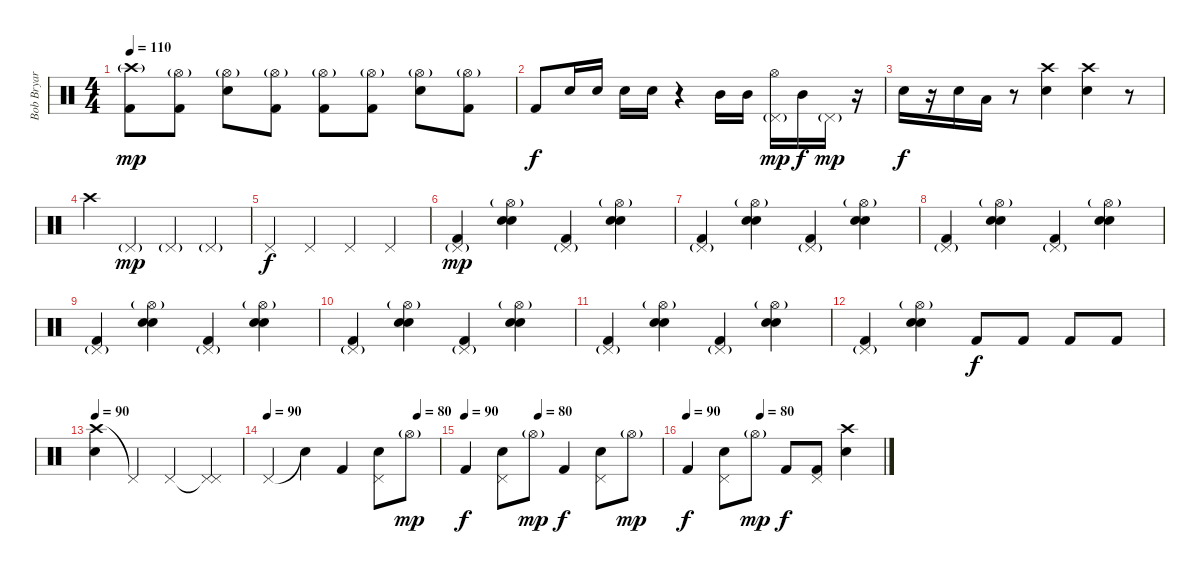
\track ("Bob Bryar [Drums]" "Bob Bryar ") {instrument percussion}
\staff {score}
\articulation defaults
\ts (4 4)
\tempo 110
\clef neutral
\ks c
("Crash high (hit)"{g} "Kick (hit) 2").8{dy mp} ("Hi-Hat (open)"{g} "Kick (hit) 2").8 ("Hi-Hat (open)"{g} "Electric Snare (hit)").8 ("Hi-Hat (open)"{g} "Kick (hit) 2").8 ("Hi-Hat (open)"{g} "Kick (hit) 2").8 ("Hi-Hat (open)"{g} "Kick (hit) 2").8 ("Hi-Hat (open)"{g} "Electric Snare (hit)").8 ("Hi-Hat (open)"{g} "Kick (hit) 2").8 |
"Kick (hit) 2".8{dy f} "Electric Snare (hit)".16 "Electric Snare (hit)".16 "Electric Snare (hit)".16 "Electric Snare (hit)".16 r.4 "Mid Tom (hit)".16 "Mid Tom (hit)".16 ("Pedal Hi-Hat (hit)"{g} "Hi-Hat (open)").16{dy mp} "Mid Tom (hit)".16{dy f} "Pedal Hi-Hat (hit)"{g}.16{dy mp} r.16 |
"Electric Snare (hit)".16{dy f} r.16 "Electric Snare (hit)".16 "Low Tom (hit)".16 r.8 ("Crash high (hit)" "Electric Snare (hit)").4 ("Crash high (hit)" "Electric Snare (hit)").4 r.8 |
"Crash high (hit)".4 "Pedal Hi-Hat (hit)"{g}.4{dy mp} "Pedal Hi-Hat (hit)"{g}.4 "Pedal Hi-Hat (hit)"{g}.4 |
"Pedal Hi-Hat (hit)".4{dy f} "Pedal Hi-Hat (hit)".4 "Pedal Hi-Hat (hit)".4 "Pedal Hi-Hat (hit)".4 |
("Pedal Hi-Hat (hit)"{g} "Kick (hit) 2").4{dy mp} ("Electric Snare (hit)" "Electric Snare (hit)" "Hi-Hat (open)"{g}).4 ("Pedal Hi-Hat (hit)"{g} "Kick (hit) 2").4 ("Electric Snare (hit)" "Electric Snare (hit)" "Hi-Hat (open)"{g}).4 |
("Pedal Hi-Hat (hit)"{g} "Kick (hit) 2").4 ("Electric Snare (hit)" "Electric Snare (hit)" "Hi-Hat (open)"{g}).4 ("Pedal Hi-Hat (hit)"{g} "Kick (hit) 2").4 ("Electric Snare (hit)" "Electric Snare (hit)" "Hi-Hat (open)"{g}).4 |
("Pedal Hi-Hat (hit)"{g} "Kick (hit) 2").4 ("Electric Snare (hit)" "Electric Snare (hit)" "Hi-Hat (open)"{g}).4 ("Pedal Hi-Hat (hit)"{g} "Kick (hit) 2").4 ("Electric Snare (hit)" "Electric Snare (hit)" "Hi-Hat (open)"{g}).4 |
("Pedal Hi-Hat (hit)"{g} "Kick (hit) 2").4 ("Electric Snare (hit)" "Electric Snare (hit)" "Hi-Hat (open)"{g}).4 ("Pedal Hi-Hat (hit)"{g} "Kick (hit) 2").4 ("Electric Snare (hit)" "Electric Snare (hit)" "Hi-Hat (open)"{g}).4 |
("Pedal Hi-Hat (hit)"{g} "Kick (hit) 2").4 ("Electric Snare (hit)" "Electric Snare (hit)" "Hi-Hat (open)"{g}).4 ("Pedal Hi-Hat (hit)"{g} "Kick (hit) 2").4 ("Electric Snare (hit)" "Electric Snare (hit)" "Hi-Hat (open)"{g}).4 |
("Pedal Hi-Hat (hit)"{g} "Kick (hit) 2").4 ("Electric Snare (hit)" "Electric Snare (hit)" "Hi-Hat (open)"{g}).4 ("Pedal Hi-Hat (hit)"{g} "Kick (hit) 2").4 ("Electric Snare (hit)" "Electric Snare (hit)" "Hi-Hat (open)"{g}).4 |
("Pedal Hi-Hat (hit)"{g} "Kick (hit) 2").4 ("Electric Snare (hit)" "Electric Snare (hit)" "Hi-Hat (open)"{g}).4 "Kick (hit) 2".8{dy f} "Kick (hit) 2".8 "Kick (hit) 2".8 "Kick (hit) 2".8 |
\tempo 90
("Crash high (hit)" "Electric Snare (hit)").4 "Pedal Hi-Hat (hit)"{t}.4 "Pedal Hi-Hat (hit)".4 ("Pedal Hi-Hat (hit)"{t} "Pedal Hi-Hat (hit)").4 |
\tempo 90
\tempo (80 0.875)
"Pedal Hi-Hat (hit)".4 "Snare (hit)"{t}.4 "Kick (hit) 2".4 ("Pedal Hi-Hat (hit)" "Electric Snare (hit)").8 "Hi-Hat (open)"{g}.8{dy mp} |
\tempo 90
\tempo (80 0.375)
"Kick (hit) 2".4{dy f} ("Pedal Hi-Hat (hit)" "Electric Snare (hit)").8 "Hi-Hat (open)"{g}.8{dy mp} "Kick (hit) 2".4{dy f} ("Pedal Hi-Hat (hit)" "Electric Snare (hit)").8 "Hi-Hat (open)"{g}.8{dy mp} |
\tempo 90
\tempo (80 0.375)
"Kick (hit) 2".4{dy f} ("Pedal Hi-Hat (hit)" "Electric Snare (hit)").8 "Hi-Hat (open)"{g}.8{dy mp} "Kick (hit) 2".8{dy f} ("Pedal Hi-Hat (hit)" "Kick (hit) 2").8 ("Crash high (hit)" "Electric Snare (hit)").4
